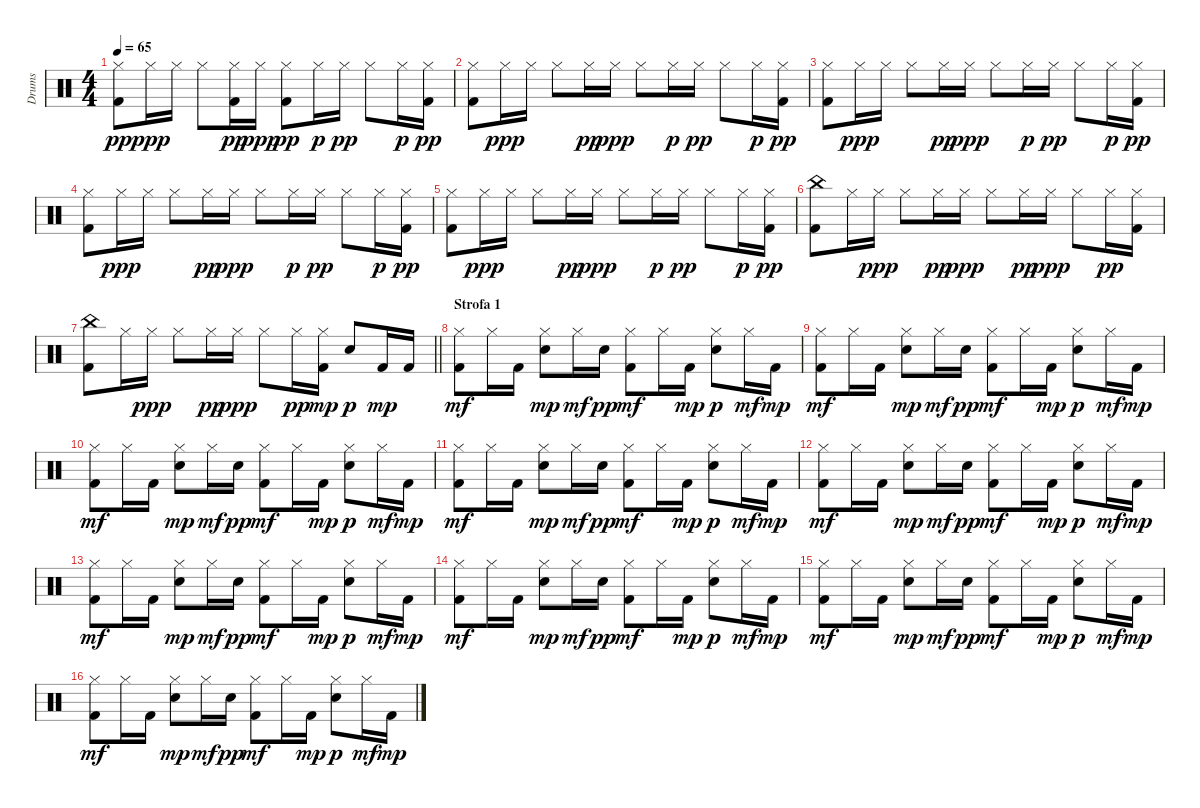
\track ("Drums" "Drums") {instrument percussion}
\staff {score}
\articulation defaults
\ts (4 4)
\tempo 65
\clef neutral
\ks c
("Hi-Hat (closed)" "Kick (hit) 2").8{dy pp} "Hi-Hat (closed)".16{dy ppp} "Hi-Hat (closed)".16 "Hi-Hat (closed)".8 ("Hi-Hat (closed)" "Kick (hit) 2").16{dy pp} "Hi-Hat (closed)".16{dy ppp} ("Hi-Hat (closed)" "Kick (hit) 2").8{dy pp} "Hi-Hat (closed)".16{dy p} "Hi-Hat (closed)".16{dy pp} "Hi-Hat (closed)".8 "Hi-Hat (closed)".16{dy p} ("Hi-Hat (closed)" "Kick (hit) 2").16{dy pp} |
("Hi-Hat (closed)" "Kick (hit) 2").8 "Hi-Hat (closed)".16{dy ppp} "Hi-Hat (closed)".16 "Hi-Hat (closed)".8 "Hi-Hat (closed)".16{dy pp} "Hi-Hat (closed)".16{dy ppp} "Hi-Hat (closed)".8 "Hi-Hat (closed)".16{dy p} "Hi-Hat (closed)".16{dy pp} "Hi-Hat (closed)".8 "Hi-Hat (closed)".16{dy p} ("Hi-Hat (closed)" "Kick (hit) 2").16{dy pp} |
("Hi-Hat (closed)" "Kick (hit) 2").8 "Hi-Hat (closed)".16{dy ppp} "Hi-Hat (closed)".16 "Hi-Hat (closed)".8 "Hi-Hat (closed)".16{dy pp} "Hi-Hat (closed)".16{dy ppp} "Hi-Hat (closed)".8 "Hi-Hat (closed)".16{dy p} "Hi-Hat (closed)".16{dy pp} "Hi-Hat (closed)".8 "Hi-Hat (closed)".16{dy p} ("Hi-Hat (closed)" "Kick (hit) 2").16{dy pp} |
("Hi-Hat (closed)" "Kick (hit) 2").8 "Hi-Hat (closed)".16{dy ppp} "Hi-Hat (closed)".16 "Hi-Hat (closed)".8 "Hi-Hat (closed)".16{dy pp} "Hi-Hat (closed)".16{dy ppp} "Hi-Hat (closed)".8 "Hi-Hat (closed)".16{dy p} "Hi-Hat (closed)".16{dy pp} "Hi-Hat (closed)".8 "Hi-Hat (closed)".16{dy p} ("Hi-Hat (closed)" "Kick (hit) 2").16{dy pp} |
("Hi-Hat (closed)" "Kick (hit) 2").8 "Hi-Hat (closed)".16{dy ppp} "Hi-Hat (closed)".16 "Hi-Hat (closed)".8 "Hi-Hat (closed)".16{dy pp} "Hi-Hat (closed)".16{dy ppp} "Hi-Hat (closed)".8 "Hi-Hat (closed)".16{dy p} "Hi-Hat (closed)".16{dy pp} "Hi-Hat (closed)".8 "Hi-Hat (closed)".16{dy p} ("Hi-Hat (closed)" "Kick (hit) 2").16{dy pp} |
("China (hit)" "Kick (hit) 2").8 "Hi-Hat (closed)".16 "Hi-Hat (closed)".16{dy ppp} "Hi-Hat (closed)".8 "Hi-Hat (closed)".16{dy pp} "Hi-Hat (closed)".16{dy ppp} "Hi-Hat (closed)".8 "Hi-Hat (closed)".16{dy pp} "Hi-Hat (closed)".16{dy ppp} "Hi-Hat (closed)".8 "Hi-Hat (closed)".16{dy pp} ("Hi-Hat (closed)" "Kick (hit) 2").16 |
\barLineRight lightlight
("China (hit)" "Kick (hit) 2").8 "Hi-Hat (closed)".16 "Hi-Hat (closed)".16{dy ppp} "Hi-Hat (closed)".8 "Hi-Hat (closed)".16{dy pp} "Hi-Hat (closed)".16{dy ppp} "Hi-Hat (closed)".8 "Hi-Hat (closed)".16{dy pp} ("Hi-Hat (closed)" "Kick (hit) 2").16{dy mp} "Electric Snare (hit)".8{dy p} "Kick (hit) 2".16{dy mp} "Kick (hit) 2".16 |
\section ("" "Strofa 1")
("Hi-Hat (closed)" "Kick (hit) 2").8{dy mf} "Hi-Hat (closed)".16 "Kick (hit) 2".16 ("Hi-Hat (closed)" "Electric Snare (hit)").8{dy mp} "Hi-Hat (closed)".16{dy mf} "Electric Snare (hit)".16{dy pp} ("Hi-Hat (closed)" "Kick (hit) 2").8{dy mf} "Hi-Hat (closed)".16 "Kick (hit) 2".16{dy mp} ("Hi-Hat (closed)" "Electric Snare (hit)").8{dy p} "Hi-Hat (closed)".16{dy mf} "Kick (hit) 2".16{dy mp} |
("Hi-Hat (closed)" "Kick (hit) 2").8{dy mf} "Hi-Hat (closed)".16 "Kick (hit) 2".16 ("Hi-Hat (closed)" "Electric Snare (hit)").8{dy mp} "Hi-Hat (closed)".16{dy mf} "Electric Snare (hit)".16{dy pp} ("Hi-Hat (closed)" "Kick (hit) 2").8{dy mf} "Hi-Hat (closed)".16 "Kick (hit) 2".16{dy mp} ("Hi-Hat (closed)" "Electric Snare (hit)").8{dy p} "Hi-Hat (closed)".16{dy mf} "Kick (hit) 2".16{dy mp} |
("Hi-Hat (closed)" "Kick (hit) 2").8{dy mf} "Hi-Hat (closed)".16 "Kick (hit) 2".16 ("Hi-Hat (closed)" "Electric Snare (hit)").8{dy mp} "Hi-Hat (closed)".16{dy mf} "Electric Snare (hit)".16{dy pp} ("Hi-Hat (closed)" "Kick (hit) 2").8{dy mf} "Hi-Hat (closed)".16 "Kick (hit) 2".16{dy mp} ("Hi-Hat (closed)" "Electric Snare (hit)").8{dy p} "Hi-Hat (closed)".16{dy mf} "Kick (hit) 2".16{dy mp} |
("Hi-Hat (closed)" "Kick (hit) 2").8{dy mf} "Hi-Hat (closed)".16 "Kick (hit) 2".16 ("Hi-Hat (closed)" "Electric Snare (hit)").8{dy mp} "Hi-Hat (closed)".16{dy mf} "Electric Snare (hit)".16{dy pp} ("Hi-Hat (closed)" "Kick (hit) 2").8{dy mf} "Hi-Hat (closed)".16 "Kick (hit) 2".16{dy mp} ("Hi-Hat (closed)" "Electric Snare (hit)").8{dy p} "Hi-Hat (closed)".16{dy mf} "Kick (hit) 2".16{dy mp} |
("Hi-Hat (closed)" "Kick (hit) 2").8{dy mf} "Hi-Hat (closed)".16 "Kick (hit) 2".16 ("Hi-Hat (closed)" "Electric Snare (hit)").8{dy mp} "Hi-Hat (closed)".16{dy mf} "Electric Snare (hit)".16{dy pp} ("Hi-Hat (closed)" "Kick (hit) 2").8{dy mf} "Hi-Hat (closed)".16 "Kick (hit) 2".16{dy mp} ("Hi-Hat (closed)" "Electric Snare (hit)").8{dy p} "Hi-Hat (closed)".16{dy mf} "Kick (hit) 2".16{dy mp} |
("Hi-Hat (closed)" "Kick (hit) 2").8{dy mf} "Hi-Hat (closed)".16 "Kick (hit) 2".16 ("Hi-Hat (closed)" "Electric Snare (hit)").8{dy mp} "Hi-Hat (closed)".16{dy mf} "Electric Snare (hit)".16{dy pp} ("Hi-Hat (closed)" "Kick (hit) 2").8{dy mf} "Hi-Hat (closed)".16 "Kick (hit) 2".16{dy mp} ("Hi-Hat (closed)" "Electric Snare (hit)").8{dy p} "Hi-Hat (closed)".16{dy mf} "Kick (hit) 2".16{dy mp} |
("Hi-Hat (closed)" "Kick (hit) 2").8{dy mf} "Hi-Hat (closed)".16 "Kick (hit) 2".16 ("Hi-Hat (closed)" "Electric Snare (hit)").8{dy mp} "Hi-Hat (closed)".16{dy mf} "Electric Snare (hit)".16{dy pp} ("Hi-Hat (closed)" "Kick (hit) 2").8{dy mf} "Hi-Hat (closed)".16 "Kick (hit) 2".16{dy mp} ("Hi-Hat (closed)" "Electric Snare (hit)").8{dy p} "Hi-Hat (closed)".16{dy mf} "Kick (hit) 2".16{dy mp} |
("Hi-Hat (closed)" "Kick (hit) 2").8{dy mf} "Hi-Hat (closed)".16 "Kick (hit) 2".16 ("Hi-Hat (closed)" "Electric Snare (hit)").8{dy mp} "Hi-Hat (closed)".16{dy mf} "Electric Snare (hit)".16{dy pp} ("Hi-Hat (closed)" "Kick (hit) 2").8{dy mf} "Hi-Hat (closed)".16 "Kick (hit) 2".16{dy mp} ("Hi-Hat (closed)" "Electric Snare (hit)").8{dy p} "Hi-Hat (closed)".16{dy mf} "Kick (hit) 2".16{dy mp} |
("Hi-Hat (closed)" "Kick (hit) 2").8{dy mf} "Hi-Hat (closed)".16 "Kick (hit) 2".16 ("Hi-Hat (closed)" "Electric Snare (hit)").8{dy mp} "Hi-Hat (closed)".16{dy mf} "Electric Snare (hit)".16{dy pp} ("Hi-Hat (closed)" "Kick (hit) 2").8{dy mf} "Hi-Hat (closed)".16 "Kick (hit) 2".16{dy mp} ("Hi-Hat (closed)" "Electric Snare (hit)").8{dy p} "Hi-Hat (closed)".16{dy mf} "Kick (hit) 2".16{dy mp}
